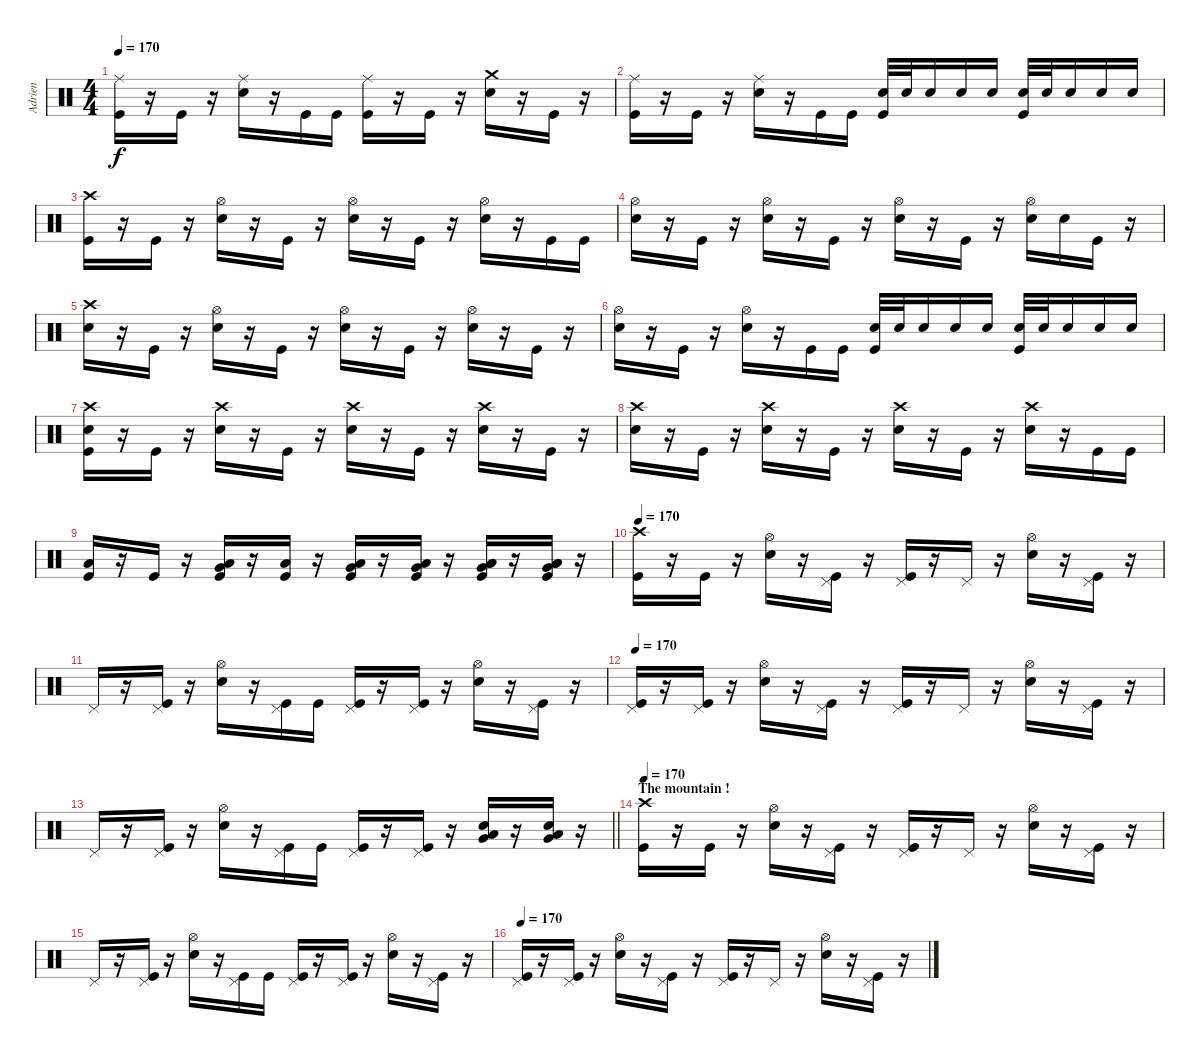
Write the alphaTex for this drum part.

\track ("Adrien" "Adrien") {instrument percussion}
\staff {score}
\articulation defaults
\ts (4 4)
\tempo 170
\clef neutral
\ks c
("Ride (middle)" "Kick (hit)").16{dy f} r.16 "Kick (hit)".16 r.16 ("Ride (middle)" "Electric Snare (hit)").16 r.16 "Kick (hit)".16 "Kick (hit)".16 ("Ride (middle)" "Kick (hit)").16 r.16 "Kick (hit)".16 r.16 ("Crash medium (hit)" "Electric Snare (hit)").16 r.16 "Kick (hit)".16 r.16 |
("Ride (middle)" "Kick (hit)").16 r.16 "Kick (hit)".16 r.16 ("Ride (middle)" "Electric Snare (hit)").16 r.16 "Kick (hit)".16 "Kick (hit)".16 ("Electric Snare (hit)" "Kick (hit)").32 "Electric Snare (hit)".32 "Electric Snare (hit)".16 "Electric Snare (hit)".16 "Electric Snare (hit)".16 ("Kick (hit)" "Electric Snare (hit)").32 "Electric Snare (hit)".32 "Electric Snare (hit)".16 "Electric Snare (hit)".16 "Electric Snare (hit)".16 |
("Crash high (hit)" "Kick (hit)").16 r.16 "Kick (hit)".16 r.16 ("Hi-Hat (open)" "Electric Snare (hit)").16 r.16 "Kick (hit)".16 r.16 ("Electric Snare (hit)" "Hi-Hat (open)").16 r.16 "Kick (hit)".16 r.16 ("Hi-Hat (open)" "Electric Snare (hit)").16 r.16 "Kick (hit)".16 "Kick (hit)".16 |
("Electric Snare (hit)" "Hi-Hat (open)").16 r.16 "Kick (hit)".16 r.16 ("Hi-Hat (open)" "Electric Snare (hit)").16 r.16 "Kick (hit)".16 r.16 ("Electric Snare (hit)" "Hi-Hat (open)").16 r.16 "Kick (hit)".16 r.16 ("Hi-Hat (open)" "Electric Snare (hit)").16 "Electric Snare (hit)".16 "Kick (hit)".16 r.16 |
("Crash high (hit)" "Electric Snare (hit)").16 r.16 "Kick (hit)".16 r.16 ("Hi-Hat (open)" "Electric Snare (hit)").16 r.16 "Kick (hit)".16 r.16 ("Electric Snare (hit)" "Hi-Hat (open)").16 r.16 "Kick (hit)".16 r.16 ("Hi-Hat (open)" "Electric Snare (hit)").16 r.16 "Kick (hit)".16 r.16 |
("Electric Snare (hit)" "Hi-Hat (open)").16 r.16 "Kick (hit)".16 r.16 ("Hi-Hat (open)" "Electric Snare (hit)").16 r.16 "Kick (hit)".16 "Kick (hit)".16 ("Electric Snare (hit)" "Kick (hit)").32 "Electric Snare (hit)".32 "Electric Snare (hit)".16 "Electric Snare (hit)".16 "Electric Snare (hit)".16 ("Kick (hit)" "Electric Snare (hit)").32 "Electric Snare (hit)".32 "Electric Snare (hit)".16 "Electric Snare (hit)".16 "Electric Snare (hit)".16 |
("Electric Snare (hit)" "Crash high (hit)" "Kick (hit)").16 r.16 "Kick (hit)".16 r.16 ("Crash high (hit)" "Electric Snare (hit)").16 r.16 "Kick (hit)".16 r.16 ("Electric Snare (hit)" "Crash high (hit)").16 r.16 "Kick (hit)".16 r.16 ("Crash high (hit)" "Electric Snare (hit)").16 r.16 "Kick (hit)".16 r.16 |
("Crash high (hit)" "Electric Snare (hit)").16 r.16 "Kick (hit)".16 r.16 ("Crash high (hit)" "Electric Snare (hit)").16 r.16 "Kick (hit)".16 r.16 ("Electric Snare (hit)" "Crash high (hit)").16 r.16 "Kick (hit)".16 r.16 ("Crash high (hit)" "Electric Snare (hit)").16 r.16 "Kick (hit)".16 "Kick (hit)".16 |
("Low Floor Tom (hit)" "Kick (hit)").16 r.16 "Kick (hit)".16 r.16 ("Very Low Tom (hit)" "Low Floor Tom (hit)" "Kick (hit)").16 r.16 ("Low Floor Tom (hit)" "Kick (hit)").16 r.16 ("Very Low Tom (hit)" "Low Floor Tom (hit)" "Kick (hit)").16 r.16 ("Very Low Tom (hit)" "Low Floor Tom (hit)" "Kick (hit)").16 r.16 ("Low Tom (hit)" "Low Floor Tom (hit)" "Very Low Tom (hit)" "Kick (hit)").16 r.16 ("Low Tom (hit)" "Low Floor Tom (hit)" "Very Low Tom (hit)" "Kick (hit)").16 r.16 |
\tempo 170
("Crash high (hit)" "Kick (hit)").16 r.16 "Kick (hit)".16 r.16 ("Hi-Hat (open)" "Electric Snare (hit)").16 r.16 ("Pedal Hi-Hat (hit)" "Kick (hit)").16 r.16 ("Pedal Hi-Hat (hit)" "Kick (hit)").16 r.16 "Pedal Hi-Hat (hit)".16 r.16 ("Hi-Hat (open)" "Electric Snare (hit)").16 r.16 ("Pedal Hi-Hat (hit)" "Kick (hit)").16 r.16 |
"Pedal Hi-Hat (hit)".16 r.16 ("Pedal Hi-Hat (hit)" "Kick (hit)").16 r.16 ("Hi-Hat (open)" "Electric Snare (hit)").16 r.16 ("Pedal Hi-Hat (hit)" "Kick (hit)").16 "Kick (hit)".16 ("Pedal Hi-Hat (hit)" "Kick (hit)").16 r.16 ("Pedal Hi-Hat (hit)" "Kick (hit)").16 r.16 ("Hi-Hat (open)" "Electric Snare (hit)").16 r.16 ("Pedal Hi-Hat (hit)" "Kick (hit)").16 r.16 |
\tempo 170
("Pedal Hi-Hat (hit)" "Kick (hit)").16 r.16 ("Pedal Hi-Hat (hit)" "Kick (hit)").16 r.16 ("Hi-Hat (open)" "Electric Snare (hit)").16 r.16 ("Pedal Hi-Hat (hit)" "Kick (hit)").16 r.16 ("Pedal Hi-Hat (hit)" "Kick (hit)").16 r.16 "Pedal Hi-Hat (hit)".16 r.16 ("Hi-Hat (open)" "Electric Snare (hit)").16 r.16 ("Pedal Hi-Hat (hit)" "Kick (hit)").16 r.16 |
\barLineRight lightlight "Pedal Hi-Hat (hit)".16
r.16 ("Pedal Hi-Hat (hit)" "Kick (hit)").16 r.16 ("Hi-Hat (open)" "Electric Snare (hit)").16 r.16 ("Pedal Hi-Hat (hit)" "Kick (hit)").16 "Kick (hit)".16 ("Pedal Hi-Hat (hit)" "Kick (hit)").16 r.16 ("Pedal Hi-Hat (hit)" "Kick (hit)").16 r.16 ("Very Low Tom (hit)" "Low Floor Tom (hit)" "Electric Snare (hit)").16 r.16 ("Very Low Tom (hit)" "Low Floor Tom (hit)" "Electric Snare (hit)").16 r.16 |
\section ("" "The mountain !")
\tempo 170
("Crash high (hit)" "Kick (hit)").16 r.16 "Kick (hit)".16 r.16 ("Hi-Hat (open)" "Electric Snare (hit)").16 r.16 ("Pedal Hi-Hat (hit)" "Kick (hit)").16 r.16 ("Pedal Hi-Hat (hit)" "Kick (hit)").16 r.16 "Pedal Hi-Hat (hit)".16 r.16 ("Hi-Hat (open)" "Electric Snare (hit)").16 r.16 ("Pedal Hi-Hat (hit)" "Kick (hit)").16 r.16 |
"Pedal Hi-Hat (hit)".16 r.16 ("Pedal Hi-Hat (hit)" "Kick (hit)").16 r.16 ("Hi-Hat (open)" "Electric Snare (hit)").16 r.16 ("Pedal Hi-Hat (hit)" "Kick (hit)").16 "Kick (hit)".16 ("Pedal Hi-Hat (hit)" "Kick (hit)").16 r.16 ("Pedal Hi-Hat (hit)" "Kick (hit)").16 r.16 ("Hi-Hat (open)" "Electric Snare (hit)").16 r.16 ("Pedal Hi-Hat (hit)" "Kick (hit)").16 r.16 |
\tempo 170
("Pedal Hi-Hat (hit)" "Kick (hit)").16 r.16 ("Pedal Hi-Hat (hit)" "Kick (hit)").16 r.16 ("Hi-Hat (open)" "Electric Snare (hit)").16 r.16 ("Pedal Hi-Hat (hit)" "Kick (hit)").16 r.16 ("Pedal Hi-Hat (hit)" "Kick (hit)").16 r.16 "Pedal Hi-Hat (hit)".16 r.16 ("Hi-Hat (open)" "Electric Snare (hit)").16 r.16 ("Pedal Hi-Hat (hit)" "Kick (hit)").16 r.16
